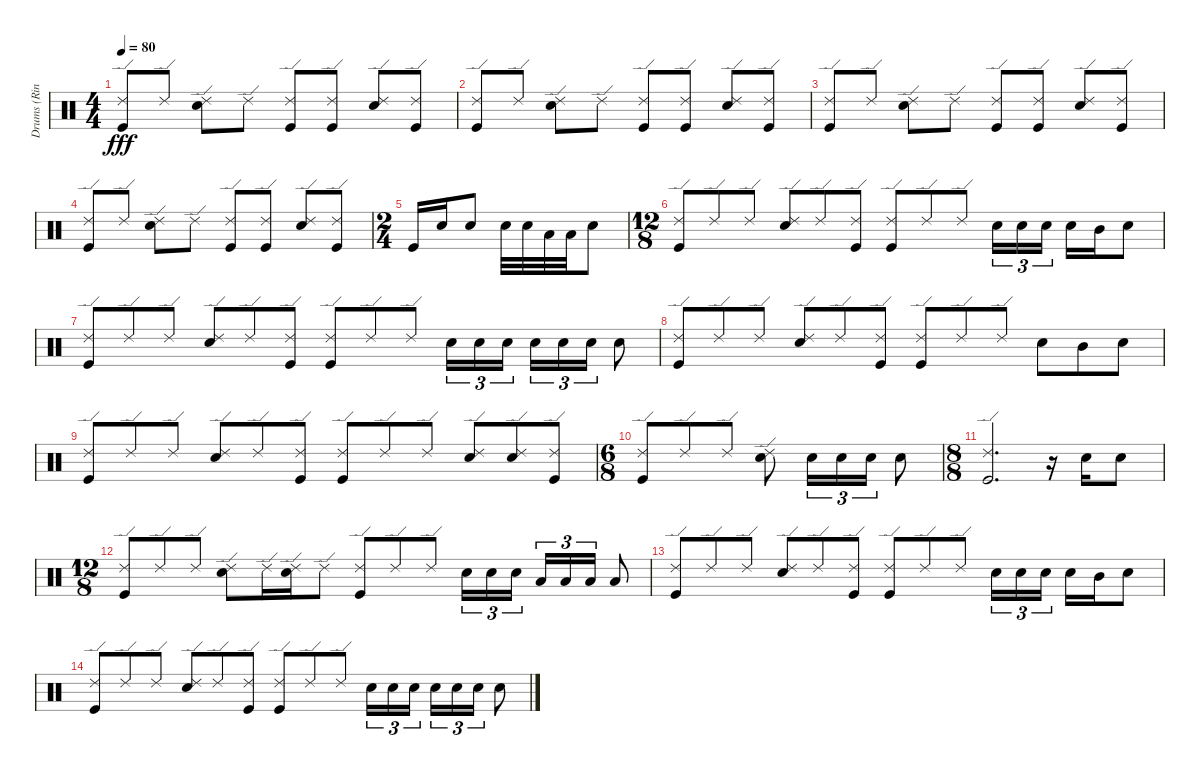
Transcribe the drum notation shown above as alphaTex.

\track ("Drums (Ringo Starr)" "Drums (Rin") {instrument percussion}
\staff {score}
\articulation defaults
\ts (4 4)
\tempo 80
\clef neutral
\ks c
("Ride (edge) 2" "Kick (hit)").8{dy fff} "Ride (edge) 2".8 ("Ride (edge) 2" "Electric Snare (hit)").8 "Ride (edge) 2".8 ("Ride (edge) 2" "Kick (hit)").8 ("Ride (edge) 2" "Kick (hit)").8 ("Ride (edge) 2" "Electric Snare (hit)").8 ("Ride (edge) 2" "Kick (hit)").8 |
("Ride (edge) 2" "Kick (hit)").8 "Ride (edge) 2".8 ("Ride (edge) 2" "Electric Snare (hit)").8 "Ride (edge) 2".8 ("Ride (edge) 2" "Kick (hit)").8 ("Ride (edge) 2" "Kick (hit)").8 ("Ride (edge) 2" "Electric Snare (hit)").8 ("Ride (edge) 2" "Kick (hit)").8 |
("Ride (edge) 2" "Kick (hit)").8 "Ride (edge) 2".8 ("Ride (edge) 2" "Electric Snare (hit)").8 "Ride (edge) 2".8 ("Ride (edge) 2" "Kick (hit)").8 ("Ride (edge) 2" "Kick (hit)").8 ("Ride (edge) 2" "Electric Snare (hit)").8 ("Ride (edge) 2" "Kick (hit)").8 |
("Ride (edge) 2" "Kick (hit)").8 "Ride (edge) 2".8 ("Ride (edge) 2" "Electric Snare (hit)").8 "Ride (edge) 2".8 ("Ride (edge) 2" "Kick (hit)").8 ("Ride (edge) 2" "Kick (hit)").8 ("Ride (edge) 2" "Electric Snare (hit)").8 ("Ride (edge) 2" "Kick (hit)").8 |
\ts (2 4)
"Kick (hit)".16 "Electric Snare (hit)".16 "Electric Snare (hit)".8 "Electric Snare (hit)".32 "Electric Snare (hit)".32 "Low Floor Tom (hit)".32 "Low Floor Tom (hit)".32 "Electric Snare (hit)".8 |
\ts (12 8)
("Ride (edge) 2" "Kick (hit)").8 "Ride (edge) 2".8 "Ride (edge) 2".8 ("Electric Snare (hit)" "Ride (edge) 2").8 "Ride (edge) 2".8 ("Kick (hit)" "Ride (edge) 2").8 ("Kick (hit)" "Ride (edge) 2").8 "Ride (edge) 2".8 "Ride (edge) 2".8 "Electric Snare (hit)".16{tu (3 2)} "Electric Snare (hit)".16{tu (3 2)} "Electric Snare (hit)".16{tu (3 2) beam splitsecondary} "Electric Snare (hit)".16 "Mid Tom (hit)".16 "Electric Snare (hit)".8 |
("Ride (edge) 2" "Kick (hit)").8 "Ride (edge) 2".8 "Ride (edge) 2".8 ("Ride (edge) 2" "Electric Snare (hit)").8 "Ride (edge) 2".8 ("Ride (edge) 2" "Kick (hit)").8 ("Ride (edge) 2" "Kick (hit)").8 "Ride (edge) 2".8 "Ride (edge) 2".8 "Electric Snare (hit)".16{tu (3 2)} "Electric Snare (hit)".16{tu (3 2)} "Electric Snare (hit)".16{tu (3 2) beam splitsecondary} "Electric Snare (hit)".16{tu (3 2)} "Electric Snare (hit)".16{tu (3 2)} "Electric Snare (hit)".16{tu (3 2)} "Electric Snare (hit)".8 |
("Ride (edge) 2" "Kick (hit)").8 "Ride (edge) 2".8 "Ride (edge) 2".8 ("Ride (edge) 2" "Electric Snare (hit)").8 "Ride (edge) 2".8 ("Ride (edge) 2" "Kick (hit)").8 ("Ride (edge) 2" "Kick (hit)").8 "Ride (edge) 2".8 "Ride (edge) 2".8 "Electric Snare (hit)".8 "Mid Tom (hit)".8 "Electric Snare (hit)".8 |
("Ride (edge) 2" "Kick (hit)").8 "Ride (edge) 2".8 "Ride (edge) 2".8 ("Ride (edge) 2" "Electric Snare (hit)").8 "Ride (edge) 2".8 ("Ride (edge) 2" "Kick (hit)").8 ("Ride (edge) 2" "Kick (hit)").8 "Ride (edge) 2".8 "Ride (edge) 2".8 ("Ride (edge) 2" "Electric Snare (hit)").8 ("Ride (edge) 2" "Electric Snare (hit)").8 ("Ride (edge) 2" "Kick (hit)").8 |
\ts (6 8)
("Ride (edge) 2" "Kick (hit)").8 "Ride (edge) 2".8 "Ride (edge) 2".8 ("Ride (edge) 2" "Electric Snare (hit)").8 "Electric Snare (hit)".16{tu (3 2)} "Electric Snare (hit)".16{tu (3 2)} "Electric Snare (hit)".16{tu (3 2)} "Electric Snare (hit)".8 |
\ts (8 8)
("Ride (edge) 2" "Kick (hit)").2{d} r.16 "Electric Snare (hit)".16 "Electric Snare (hit)".8 |
\ts (12 8)
("Ride (edge) 2" "Kick (hit)").8 "Ride (edge) 2".8 "Ride (edge) 2".8 ("Ride (edge) 2" "Electric Snare (hit)").8 "Ride (edge) 2".16 ("Ride (edge) 2" "Electric Snare (hit)").16 "Ride (edge) 2".8 ("Ride (edge) 2" "Kick (hit)").8 "Ride (edge) 2".8 "Ride (edge) 2".8 "Electric Snare (hit)".16{tu (3 2)} "Electric Snare (hit)".16{tu (3 2)} "Electric Snare (hit)".16{tu (3 2) beam splitsecondary} "Low Floor Tom (hit)".16{tu (3 2)} "Low Floor Tom (hit)".16{tu (3 2)} "Low Floor Tom (hit)".16{tu (3 2)} "Low Floor Tom (hit)".8 |
("Ride (edge) 2" "Kick (hit)").8 "Ride (edge) 2".8 "Ride (edge) 2".8 ("Ride (edge) 2" "Electric Snare (hit)").8 "Ride (edge) 2".8 ("Ride (edge) 2" "Kick (hit)").8 ("Ride (edge) 2" "Kick (hit)").8 "Ride (edge) 2".8 "Ride (edge) 2".8 "Electric Snare (hit)".16{tu (3 2)} "Electric Snare (hit)".16{tu (3 2)} "Electric Snare (hit)".16{tu (3 2) beam splitsecondary} "Electric Snare (hit)".16 "Mid Tom (hit)".16 "Electric Snare (hit)".8 |
("Ride (edge) 2" "Kick (hit)").8 "Ride (edge) 2".8 "Ride (edge) 2".8 ("Ride (edge) 2" "Electric Snare (hit)").8 "Ride (edge) 2".8 ("Ride (edge) 2" "Kick (hit)").8 ("Ride (edge) 2" "Kick (hit)").8 "Ride (edge) 2".8 "Ride (edge) 2".8 "Electric Snare (hit)".16{tu (3 2)} "Electric Snare (hit)".16{tu (3 2)} "Electric Snare (hit)".16{tu (3 2) beam splitsecondary} "Electric Snare (hit)".16{tu (3 2)} "Electric Snare (hit)".16{tu (3 2)} "Electric Snare (hit)".16{tu (3 2)} "Electric Snare (hit)".8
